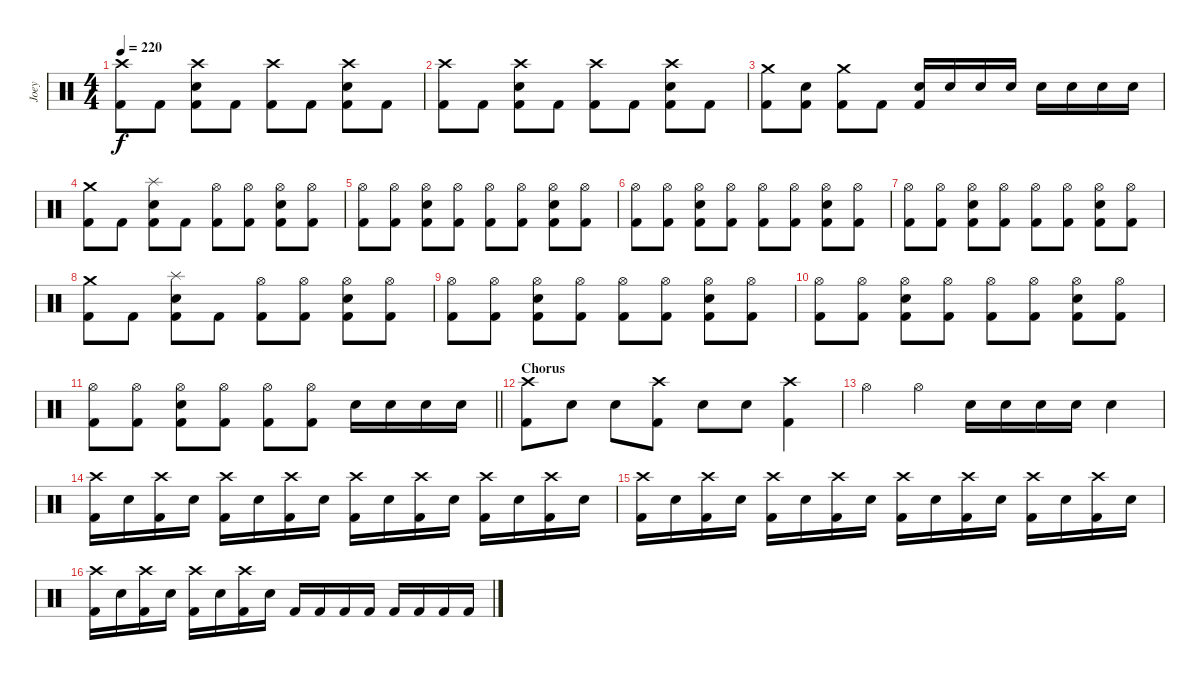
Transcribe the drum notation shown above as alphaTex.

\track ("Joey" "Joey") {instrument percussion}
\staff {score}
\articulation defaults
\ts (4 4)
\tempo 220
\clef neutral
\ks c
("Crash high (hit)" "Kick (hit) 2").8{dy f} "Kick (hit) 2".8 ("Crash high (hit)" "Electric Snare (hit)" "Kick (hit) 2").8 "Kick (hit) 2".8 ("Crash high (hit)" "Kick (hit) 2").8 "Kick (hit) 2".8 ("Crash high (hit)" "Electric Snare (hit)" "Kick (hit) 2").8 "Kick (hit) 2".8 |
("Crash high (hit)" "Kick (hit) 2").8 "Kick (hit) 2".8 ("Crash high (hit)" "Electric Snare (hit)" "Kick (hit) 2").8 "Kick (hit) 2".8 ("Crash high (hit)" "Kick (hit) 2").8 "Kick (hit) 2".8 ("Crash high (hit)" "Electric Snare (hit)" "Kick (hit) 2").8 "Kick (hit) 2".8 |
("Crash medium (hit)" "Kick (hit) 2").8 ("Electric Snare (hit)" "Kick (hit) 2").8 ("Crash medium (hit)" "Kick (hit) 2").8 "Kick (hit) 2".8 ("Electric Snare (hit)" "Kick (hit) 2").16 "Electric Snare (hit)".16 "Electric Snare (hit)".16 "Electric Snare (hit)".16 "Electric Snare (hit)".16 "Electric Snare (hit)".16 "Electric Snare (hit)".16 "Electric Snare (hit)".16 |
("Crash medium (hit)" "Kick (hit) 2").8 "Kick (hit) 2".8 ("Splash (hit)" "Electric Snare (hit)" "Kick (hit) 2").8 "Kick (hit) 2".8 ("Hi-Hat (open)" "Kick (hit) 2").8 ("Hi-Hat (open)" "Kick (hit) 2").8 ("Hi-Hat (open)" "Electric Snare (hit)" "Kick (hit) 2").8 ("Hi-Hat (open)" "Kick (hit) 2").8 |
("Hi-Hat (open)" "Kick (hit) 2").8 ("Hi-Hat (open)" "Kick (hit) 2").8 ("Hi-Hat (open)" "Electric Snare (hit)" "Kick (hit) 2").8 ("Hi-Hat (open)" "Kick (hit) 2").8 ("Hi-Hat (open)" "Kick (hit) 2").8 ("Hi-Hat (open)" "Kick (hit) 2").8 ("Hi-Hat (open)" "Electric Snare (hit)" "Kick (hit) 2").8 ("Hi-Hat (open)" "Kick (hit) 2").8 |
("Hi-Hat (open)" "Kick (hit) 2").8 ("Hi-Hat (open)" "Kick (hit) 2").8 ("Hi-Hat (open)" "Electric Snare (hit)" "Kick (hit) 2").8 ("Hi-Hat (open)" "Kick (hit) 2").8 ("Hi-Hat (open)" "Kick (hit) 2").8 ("Hi-Hat (open)" "Kick (hit) 2").8 ("Hi-Hat (open)" "Electric Snare (hit)" "Kick (hit) 2").8 ("Hi-Hat (open)" "Kick (hit) 2").8 |
("Hi-Hat (open)" "Kick (hit) 2").8 ("Hi-Hat (open)" "Kick (hit) 2").8 ("Hi-Hat (open)" "Electric Snare (hit)" "Kick (hit) 2").8 ("Hi-Hat (open)" "Kick (hit) 2").8 ("Hi-Hat (open)" "Kick (hit) 2").8 ("Hi-Hat (open)" "Kick (hit) 2").8 ("Hi-Hat (open)" "Electric Snare (hit)" "Kick (hit) 2").8 ("Hi-Hat (open)" "Kick (hit) 2").8 |
("Crash medium (hit)" "Kick (hit) 2").8 "Kick (hit) 2".8 ("Splash (hit)" "Electric Snare (hit)" "Kick (hit) 2").8 "Kick (hit) 2".8 ("Hi-Hat (open)" "Kick (hit) 2").8 ("Hi-Hat (open)" "Kick (hit) 2").8 ("Hi-Hat (open)" "Electric Snare (hit)" "Kick (hit) 2").8 ("Hi-Hat (open)" "Kick (hit) 2").8 |
("Hi-Hat (open)" "Kick (hit) 2").8 ("Hi-Hat (open)" "Kick (hit) 2").8 ("Hi-Hat (open)" "Electric Snare (hit)" "Kick (hit) 2").8 ("Hi-Hat (open)" "Kick (hit) 2").8 ("Hi-Hat (open)" "Kick (hit) 2").8 ("Hi-Hat (open)" "Kick (hit) 2").8 ("Hi-Hat (open)" "Electric Snare (hit)" "Kick (hit) 2").8 ("Hi-Hat (open)" "Kick (hit) 2").8 |
("Hi-Hat (open)" "Kick (hit) 2").8 ("Hi-Hat (open)" "Kick (hit) 2").8 ("Hi-Hat (open)" "Electric Snare (hit)" "Kick (hit) 2").8 ("Hi-Hat (open)" "Kick (hit) 2").8 ("Hi-Hat (open)" "Kick (hit) 2").8 ("Hi-Hat (open)" "Kick (hit) 2").8 ("Hi-Hat (open)" "Electric Snare (hit)" "Kick (hit) 2").8 ("Hi-Hat (open)" "Kick (hit) 2").8 |
\barLineRight lightlight
("Hi-Hat (open)" "Kick (hit) 2").8 ("Hi-Hat (open)" "Kick (hit) 2").8 ("Hi-Hat (open)" "Electric Snare (hit)" "Kick (hit) 2").8 ("Hi-Hat (open)" "Kick (hit) 2").8 ("Hi-Hat (open)" "Kick (hit) 2").8 ("Hi-Hat (open)" "Kick (hit) 2").8 "Electric Snare (hit)".16 "Electric Snare (hit)".16 "Electric Snare (hit)".16 "Electric Snare (hit)".16 |
\section ("" "Chorus")
("Crash high (hit)" "Kick (hit) 2").8 "Electric Snare (hit)".8 "Electric Snare (hit)".8 ("Crash high (hit)" "Kick (hit) 2").8 "Electric Snare (hit)".8 "Electric Snare (hit)".8 ("Crash high (hit)" "Kick (hit) 2").4 |
"Hi-Hat (open)".4 "Hi-Hat (open)".4 "Electric Snare (hit)".16 "Electric Snare (hit)".16 "Electric Snare (hit)".16 "Electric Snare (hit)".16 "Electric Snare (hit)".4 |
("Crash high (hit)" "Kick (hit) 2").16 "Electric Snare (hit)".16 ("Crash high (hit)" "Kick (hit) 2").16 "Electric Snare (hit)".16 ("Crash high (hit)" "Kick (hit) 2").16 "Electric Snare (hit)".16 ("Crash high (hit)" "Kick (hit) 2").16 "Electric Snare (hit)".16 ("Crash high (hit)" "Kick (hit) 2").16 "Electric Snare (hit)".16 ("Crash high (hit)" "Kick (hit) 2").16 "Electric Snare (hit)".16 ("Crash high (hit)" "Kick (hit) 2").16 "Electric Snare (hit)".16 ("Crash high (hit)" "Kick (hit) 2").16 "Electric Snare (hit)".16 |
("Crash high (hit)" "Kick (hit) 2").16 "Electric Snare (hit)".16 ("Crash high (hit)" "Kick (hit) 2").16 "Electric Snare (hit)".16 ("Crash high (hit)" "Kick (hit) 2").16 "Electric Snare (hit)".16 ("Crash high (hit)" "Kick (hit) 2").16 "Electric Snare (hit)".16 ("Crash high (hit)" "Kick (hit) 2").16 "Electric Snare (hit)".16 ("Crash high (hit)" "Kick (hit) 2").16 "Electric Snare (hit)".16 ("Crash high (hit)" "Kick (hit) 2").16 "Electric Snare (hit)".16 ("Crash high (hit)" "Kick (hit) 2").16 "Electric Snare (hit)".16 |
("Crash high (hit)" "Kick (hit) 2").16 "Electric Snare (hit)".16 ("Crash high (hit)" "Kick (hit) 2").16 "Electric Snare (hit)".16 ("Crash high (hit)" "Kick (hit) 2").16 "Electric Snare (hit)".16 ("Crash high (hit)" "Kick (hit) 2").16 "Electric Snare (hit)".16 "Kick (hit) 2".16 "Kick (hit) 2".16 "Kick (hit) 2".16 "Kick (hit) 2".16 "Kick (hit) 2".16 "Kick (hit) 2".16 "Kick (hit) 2".16 "Kick (hit) 2".16
